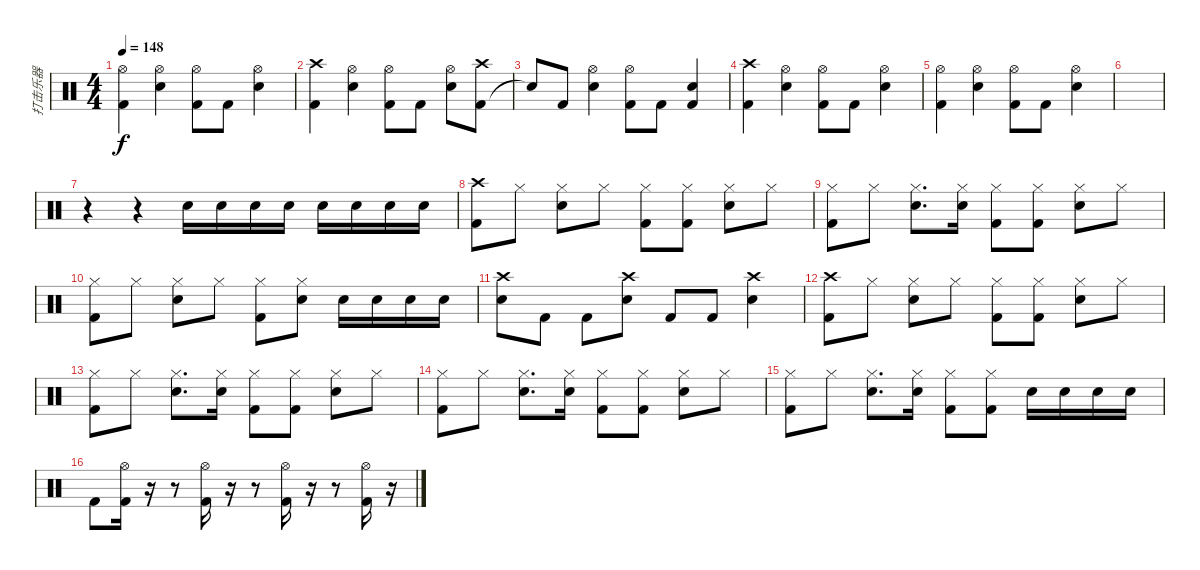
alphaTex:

\track ("打击乐器" "打击乐器") {instrument percussion}
\staff {score}
\articulation defaults
\ts (4 4)
\tempo 148
\clef neutral
\ks c
("Kick (hit) 2" "Hi-Hat (open)").4{dy f} ("Electric Snare (hit)" "Hi-Hat (open)").4 ("Kick (hit) 2" "Hi-Hat (open)").8 "Kick (hit) 2".8 ("Electric Snare (hit)" "Hi-Hat (open)").4 |
("Kick (hit) 2" "Crash high (hit)").4 ("Electric Snare (hit)" "Hi-Hat (open)").4 ("Kick (hit) 2" "Hi-Hat (open)").8 "Kick (hit) 2".8 ("Electric Snare (hit)" "Hi-Hat (open)").8 ("Kick (hit) 2" "Crash high (hit)").8 |
"Snare (hit)"{t}.8 "Kick (hit) 2".8 ("Electric Snare (hit)" "Hi-Hat (open)").4 ("Kick (hit) 2" "Hi-Hat (open)").8 "Kick (hit) 2".8 ("Electric Snare (hit)" "Kick (hit) 2").4 |
("Kick (hit) 2" "Crash high (hit)").4 ("Electric Snare (hit)" "Hi-Hat (open)").4 ("Kick (hit) 2" "Hi-Hat (open)").8 "Kick (hit) 2".8 ("Electric Snare (hit)" "Hi-Hat (open)").4 |
("Kick (hit) 2" "Hi-Hat (open)").4 ("Electric Snare (hit)" "Hi-Hat (open)").4 ("Kick (hit) 2" "Hi-Hat (open)").8 "Kick (hit) 2".8 ("Electric Snare (hit)" "Hi-Hat (open)").4 |
|
r.4 r.4 "Electric Snare (hit)".16 "Electric Snare (hit)".16 "Electric Snare (hit)".16 "Electric Snare (hit)".16 "Electric Snare (hit)".16 "Electric Snare (hit)".16 "Electric Snare (hit)".16 "Electric Snare (hit)".16 |
("Crash high (hit)" "Kick (hit) 2").8 "Hi-Hat (closed)".8 ("Hi-Hat (closed)" "Electric Snare (hit)").8 "Hi-Hat (closed)".8 ("Hi-Hat (closed)" "Kick (hit) 2").8 ("Hi-Hat (closed)" "Kick (hit) 2").8 ("Hi-Hat (closed)" "Electric Snare (hit)").8 "Hi-Hat (closed)".8 |
("Hi-Hat (closed)" "Kick (hit) 2").8 "Hi-Hat (closed)".8 ("Hi-Hat (closed)" "Electric Snare (hit)").8{d} ("Hi-Hat (closed)" "Electric Snare (hit)").16 ("Hi-Hat (closed)" "Kick (hit) 2").8 ("Hi-Hat (closed)" "Kick (hit) 2").8 ("Hi-Hat (closed)" "Electric Snare (hit)").8 "Hi-Hat (closed)".8 |
("Hi-Hat (closed)" "Kick (hit) 2").8 "Hi-Hat (closed)".8 ("Hi-Hat (closed)" "Electric Snare (hit)").8 "Hi-Hat (closed)".8 ("Hi-Hat (closed)" "Kick (hit) 2").8 ("Hi-Hat (closed)" "Electric Snare (hit)").8 "Electric Snare (hit)".16 "Electric Snare (hit)".16 "Electric Snare (hit)".16 "Electric Snare (hit)".16 |
("Crash high (hit)" "Electric Snare (hit)").8 "Kick (hit) 2".8 "Kick (hit) 2".8 ("Crash high (hit)" "Electric Snare (hit)").8 "Kick (hit) 2".8 "Kick (hit) 2".8 ("Crash high (hit)" "Electric Snare (hit)").4 |
("Crash high (hit)" "Kick (hit) 2").8 "Hi-Hat (closed)".8 ("Hi-Hat (closed)" "Electric Snare (hit)").8 "Hi-Hat (closed)".8 ("Hi-Hat (closed)" "Kick (hit) 2").8 ("Hi-Hat (closed)" "Kick (hit) 2").8 ("Hi-Hat (closed)" "Electric Snare (hit)").8 "Hi-Hat (closed)".8 |
("Hi-Hat (closed)" "Kick (hit) 2").8 "Hi-Hat (closed)".8 ("Hi-Hat (closed)" "Electric Snare (hit)").8{d} ("Hi-Hat (closed)" "Electric Snare (hit)").16 ("Hi-Hat (closed)" "Kick (hit) 2").8 ("Hi-Hat (closed)" "Kick (hit) 2").8 ("Hi-Hat (closed)" "Electric Snare (hit)").8 "Hi-Hat (closed)".8 |
("Hi-Hat (closed)" "Kick (hit) 2").8 "Hi-Hat (closed)".8 ("Hi-Hat (closed)" "Electric Snare (hit)").8{d} ("Hi-Hat (closed)" "Electric Snare (hit)").16 ("Hi-Hat (closed)" "Kick (hit) 2").8 ("Hi-Hat (closed)" "Kick (hit) 2").8 ("Hi-Hat (closed)" "Electric Snare (hit)").8 "Hi-Hat (closed)".8 |
("Hi-Hat (closed)" "Kick (hit) 2").8 "Hi-Hat (closed)".8 ("Hi-Hat (closed)" "Electric Snare (hit)").8{d} ("Hi-Hat (closed)" "Electric Snare (hit)").16 ("Hi-Hat (closed)" "Kick (hit) 2").8 ("Hi-Hat (closed)" "Kick (hit) 2").8 "Electric Snare (hit)".16 "Electric Snare (hit)".16 "Electric Snare (hit)".16 "Electric Snare (hit)".16 |
"Kick (hit) 2".8 ("Hi-Hat (open)" "Kick (hit) 2").16 r.16 r.8 ("Hi-Hat (open)" "Kick (hit) 2").16 r.16 r.8 ("Hi-Hat (open)" "Kick (hit) 2").16 r.16 r.8 ("Hi-Hat (open)" "Kick (hit) 2").16 r.16
